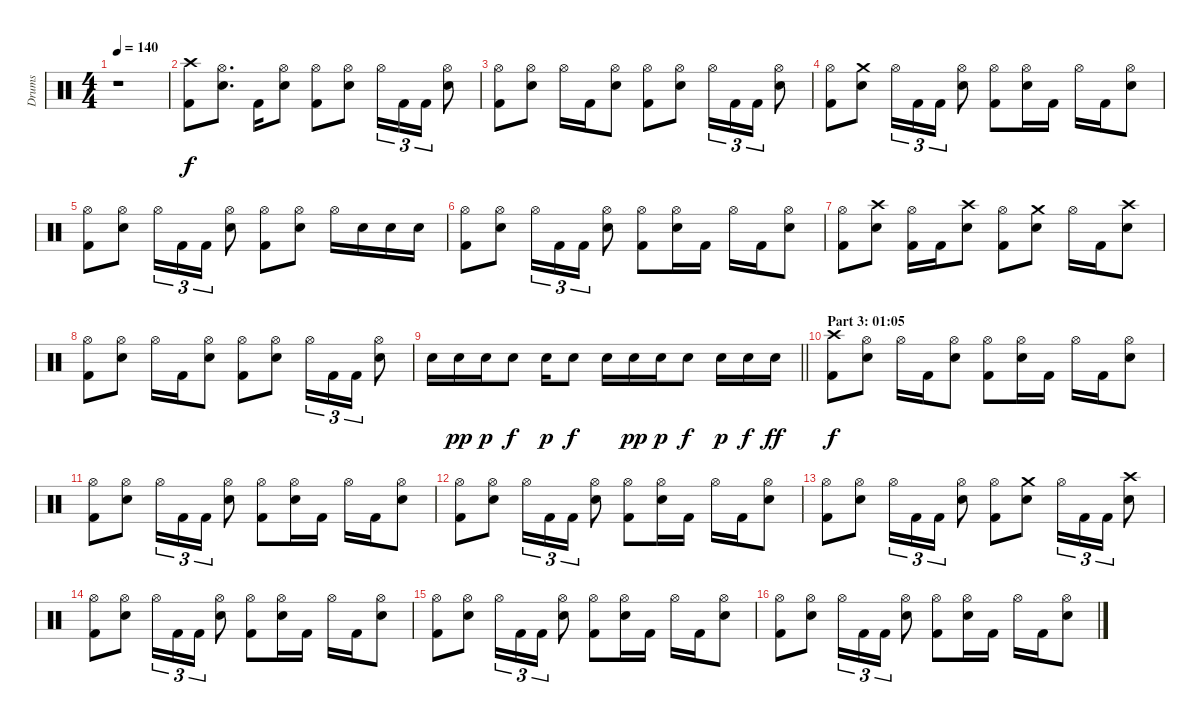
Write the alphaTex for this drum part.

\track ("Drums" "Drums") {instrument percussion}
\staff {score}
\articulation defaults
\ts (4 4)
\tempo 140
\clef neutral
\ks c
r.1{dy ppp} |
("Crash high (hit)" "Kick (hit) 2").8{dy f} ("Hi-Hat (open)" "Electric Snare (hit)").8{d} "Kick (hit) 2".16 ("Hi-Hat (open)" "Electric Snare (hit)").8 ("Hi-Hat (open)" "Kick (hit) 2").8 ("Hi-Hat (open)" "Electric Snare (hit)").8 "Hi-Hat (open)".16{tu (3 2)} "Kick (hit) 2".16{tu (3 2)} "Kick (hit) 2".16{tu (3 2)} ("Hi-Hat (open)" "Electric Snare (hit)").8 |
("Hi-Hat (open)" "Kick (hit) 2").8 ("Hi-Hat (open)" "Electric Snare (hit)").8 "Hi-Hat (open)".16 "Kick (hit) 2".16 ("Hi-Hat (open)" "Electric Snare (hit)").8 ("Hi-Hat (open)" "Kick (hit) 2").8 ("Hi-Hat (open)" "Electric Snare (hit)").8 "Hi-Hat (open)".16{tu (3 2)} "Kick (hit) 2".16{tu (3 2)} "Kick (hit) 2".16{tu (3 2)} ("Hi-Hat (open)" "Electric Snare (hit)").8 |
("Hi-Hat (open)" "Kick (hit) 2").8 ("Crash medium (hit)" "Electric Snare (hit)").8 "Hi-Hat (open)".16{tu (3 2)} "Kick (hit) 2".16{tu (3 2)} "Kick (hit) 2".16{tu (3 2)} ("Hi-Hat (open)" "Electric Snare (hit)").8 ("Hi-Hat (open)" "Kick (hit) 2").8 ("Hi-Hat (open)" "Electric Snare (hit)").16 "Kick (hit) 2".16 "Hi-Hat (open)".16 "Kick (hit) 2".16 ("Hi-Hat (open)" "Electric Snare (hit)").8 |
("Hi-Hat (open)" "Kick (hit) 2").8 ("Hi-Hat (open)" "Electric Snare (hit)").8 "Hi-Hat (open)".16{tu (3 2)} "Kick (hit) 2".16{tu (3 2)} "Kick (hit) 2".16{tu (3 2)} ("Hi-Hat (open)" "Electric Snare (hit)").8 ("Hi-Hat (open)" "Kick (hit) 2").8 ("Hi-Hat (open)" "Electric Snare (hit)").8 "Hi-Hat (open)".16 "Electric Snare (hit)".16 "Electric Snare (hit)".16 "Electric Snare (hit)".16 |
("Hi-Hat (open)" "Kick (hit) 2").8 ("Hi-Hat (open)" "Electric Snare (hit)").8 "Hi-Hat (open)".16{tu (3 2)} "Kick (hit) 2".16{tu (3 2)} "Kick (hit) 2".16{tu (3 2)} ("Hi-Hat (open)" "Electric Snare (hit)").8 ("Hi-Hat (open)" "Kick (hit) 2").8 ("Hi-Hat (open)" "Electric Snare (hit)").16 "Kick (hit) 2".16 "Hi-Hat (open)".16 "Kick (hit) 2".16 ("Hi-Hat (open)" "Electric Snare (hit)").8 |
("Hi-Hat (open)" "Kick (hit) 2").8 ("Crash high (hit)" "Electric Snare (hit)").8 ("Hi-Hat (open)" "Kick (hit) 2").16 "Kick (hit) 2".16 ("Crash high (hit)" "Electric Snare (hit)").8 ("Hi-Hat (open)" "Kick (hit) 2").8 ("Crash medium (hit)" "Electric Snare (hit)").8 "Hi-Hat (open)".16 "Kick (hit) 2".16 ("Crash high (hit)" "Electric Snare (hit)").8 |
("Hi-Hat (open)" "Kick (hit) 2").8 ("Hi-Hat (open)" "Electric Snare (hit)").8 "Hi-Hat (open)".16 "Kick (hit) 2".16 ("Hi-Hat (open)" "Electric Snare (hit)").8 ("Hi-Hat (open)" "Kick (hit) 2").8 ("Hi-Hat (open)" "Electric Snare (hit)").8 "Hi-Hat (open)".16{tu (3 2)} "Kick (hit) 2".16{tu (3 2)} "Kick (hit) 2".16{tu (3 2)} ("Hi-Hat (open)" "Electric Snare (hit)").8 |
\barLineRight lightlight "Electric Snare (hit)".16 "Electric Snare (hit)".16{dy pp} "Electric Snare (hit)".16{dy p} "Electric Snare (hit)".8{dy f} "Electric Snare (hit)".16{dy p} "Electric Snare (hit)".8{dy f} "Electric Snare (hit)".16 "Electric Snare (hit)".16{dy pp} "Electric Snare (hit)".16{dy p} "Electric Snare (hit)".8{dy f} "Electric Snare (hit)".16{dy p} "Electric Snare (hit)".16{dy f} "Electric Snare (hit)".16{dy ff}
|
\section ("" "Part 3: 01:05")
("Crash high (hit)" "Kick (hit) 2").8{dy f} ("Hi-Hat (open)" "Electric Snare (hit)").8 "Hi-Hat (open)".16 "Kick (hit) 2".16 ("Hi-Hat (open)" "Electric Snare (hit)").8 ("Hi-Hat (open)" "Kick (hit) 2").8 ("Hi-Hat (open)" "Electric Snare (hit)").16 "Kick (hit) 2".16 "Hi-Hat (open)".16 "Kick (hit) 2".16 ("Hi-Hat (open)" "Electric Snare (hit)").8 |
("Hi-Hat (open)" "Kick (hit) 2").8 ("Hi-Hat (open)" "Electric Snare (hit)").8 "Hi-Hat (open)".16{tu (3 2)} "Kick (hit) 2".16{tu (3 2)} "Kick (hit) 2".16{tu (3 2)} ("Hi-Hat (open)" "Electric Snare (hit)").8 ("Hi-Hat (open)" "Kick (hit) 2").8 ("Hi-Hat (open)" "Electric Snare (hit)").16 "Kick (hit) 2".16 "Hi-Hat (open)".16 "Kick (hit) 2".16 ("Hi-Hat (open)" "Electric Snare (hit)").8 |
("Hi-Hat (open)" "Kick (hit) 2").8 ("Hi-Hat (open)" "Electric Snare (hit)").8 "Hi-Hat (open)".16{tu (3 2)} "Kick (hit) 2".16{tu (3 2)} "Kick (hit) 2".16{tu (3 2)} ("Hi-Hat (open)" "Electric Snare (hit)").8 ("Hi-Hat (open)" "Kick (hit) 2").8 ("Hi-Hat (open)" "Electric Snare (hit)").16 "Kick (hit) 2".16 "Hi-Hat (open)".16 "Kick (hit) 2".16 ("Hi-Hat (open)" "Electric Snare (hit)").8 |
("Hi-Hat (open)" "Kick (hit) 2").8 ("Hi-Hat (open)" "Electric Snare (hit)").8 "Hi-Hat (open)".16{tu (3 2)} "Kick (hit) 2".16{tu (3 2)} "Kick (hit) 2".16{tu (3 2)} ("Hi-Hat (open)" "Electric Snare (hit)").8 ("Hi-Hat (open)" "Kick (hit) 2").8 ("Crash medium (hit)" "Electric Snare (hit)").8 "Hi-Hat (open)".16{tu (3 2)} "Kick (hit) 2".16{tu (3 2)} "Kick (hit) 2".16{tu (3 2)} ("Crash high (hit)" "Electric Snare (hit)").8 |
("Hi-Hat (open)" "Kick (hit) 2").8 ("Hi-Hat (open)" "Electric Snare (hit)").8 "Hi-Hat (open)".16{tu (3 2)} "Kick (hit) 2".16{tu (3 2)} "Kick (hit) 2".16{tu (3 2)} ("Hi-Hat (open)" "Electric Snare (hit)").8 ("Hi-Hat (open)" "Kick (hit) 2").8 ("Hi-Hat (open)" "Electric Snare (hit)").16 "Kick (hit) 2".16 "Hi-Hat (open)".16 "Kick (hit) 2".16 ("Hi-Hat (open)" "Electric Snare (hit)").8 |
("Hi-Hat (open)" "Kick (hit) 2").8 ("Hi-Hat (open)" "Electric Snare (hit)").8 "Hi-Hat (open)".16{tu (3 2)} "Kick (hit) 2".16{tu (3 2)} "Kick (hit) 2".16{tu (3 2)} ("Hi-Hat (open)" "Electric Snare (hit)").8 ("Hi-Hat (open)" "Kick (hit) 2").8 ("Hi-Hat (open)" "Electric Snare (hit)").16 "Kick (hit) 2".16 "Hi-Hat (open)".16 "Kick (hit) 2".16 ("Hi-Hat (open)" "Electric Snare (hit)").8 |
("Hi-Hat (open)" "Kick (hit) 2").8 ("Hi-Hat (open)" "Electric Snare (hit)").8 "Hi-Hat (open)".16{tu (3 2)} "Kick (hit) 2".16{tu (3 2)} "Kick (hit) 2".16{tu (3 2)} ("Hi-Hat (open)" "Electric Snare (hit)").8 ("Hi-Hat (open)" "Kick (hit) 2").8 ("Hi-Hat (open)" "Electric Snare (hit)").16 "Kick (hit) 2".16 "Hi-Hat (open)".16 "Kick (hit) 2".16 ("Hi-Hat (open)" "Electric Snare (hit)").8
